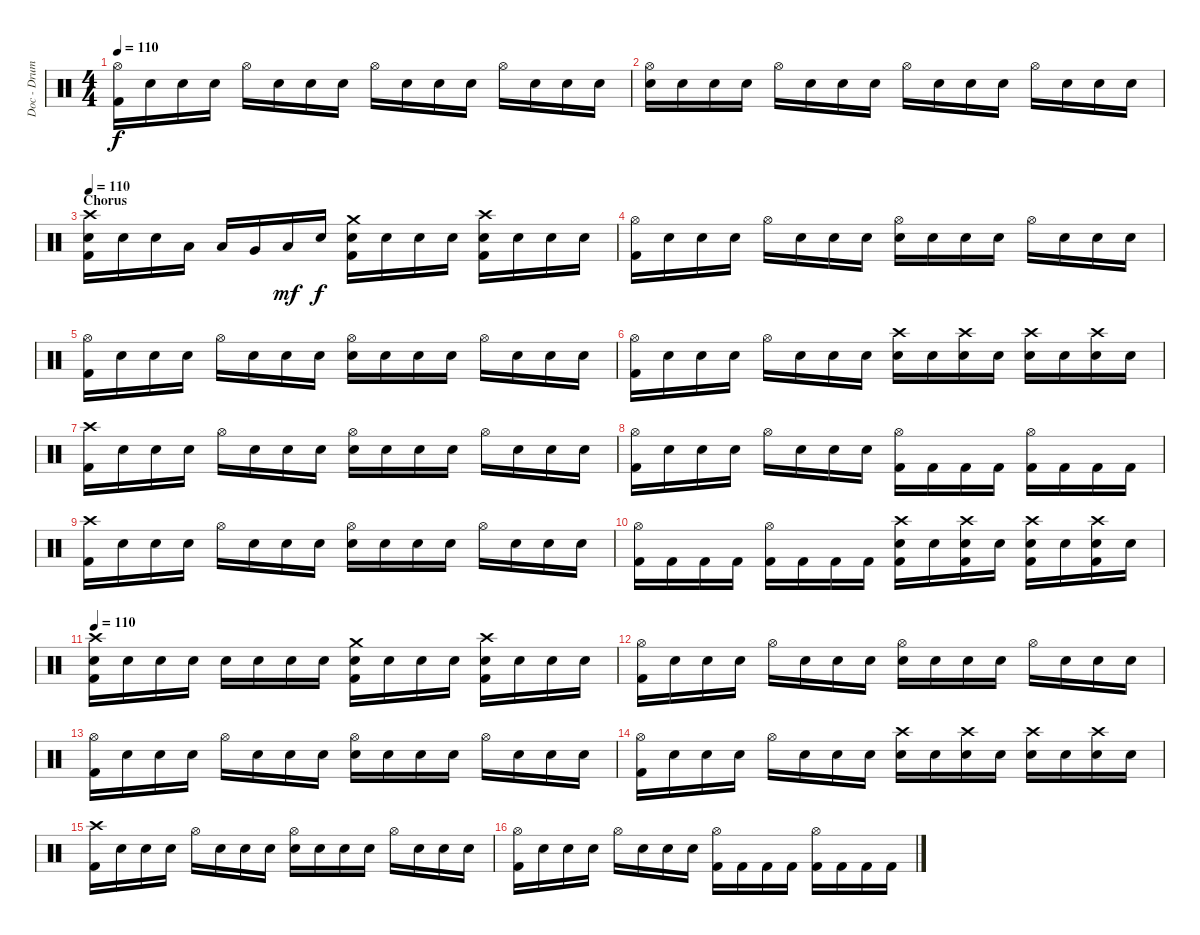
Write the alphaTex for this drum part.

\track ("Doc - Drums" "Doc - Drum") {instrument percussion}
\staff {score}
\articulation defaults
\ts (4 4)
\tempo 110
\clef neutral
\ks c
("Hi-Hat (open)" "Kick (hit) 2").16{dy f} "Snare (hit)".16 "Snare (hit)".16 "Snare (hit)".16 "Hi-Hat (open)".16 "Snare (hit)".16 "Snare (hit)".16 "Snare (hit)".16 "Hi-Hat (open)".16 "Snare (hit)".16 "Snare (hit)".16 "Snare (hit)".16 "Hi-Hat (open)".16 "Snare (hit)".16 "Snare (hit)".16 "Snare (hit)".16 |
("Hi-Hat (open)" "Electric Snare (hit)").16 "Snare (hit)".16 "Snare (hit)".16 "Snare (hit)".16 "Hi-Hat (open)".16 "Snare (hit)".16 "Snare (hit)".16 "Snare (hit)".16 "Hi-Hat (open)".16 "Snare (hit)".16 "Snare (hit)".16 "Snare (hit)".16 "Hi-Hat (open)".16 "Snare (hit)".16 "Snare (hit)".16 "Snare (hit)".16 |
\section ("" "Chorus")
\tempo 110
("Crash high (hit)" "Electric Snare (hit)" "Kick (hit) 2").16{volume 16 balance 8} "Snare (hit)".16 "Snare (hit)".16 "Low Tom (hit)".16 "Low Tom (hit)".16 "Very Low Tom (hit)".16 "Low Floor Tom (hit)".16{dy mf} "Snare (hit)".16{dy f} ("Crash medium (hit)" "Electric Snare (hit)" "Kick (hit) 2").16 "Snare (hit)".16 "Snare (hit)".16 "Snare (hit)".16 ("Crash high (hit)" "Electric Snare (hit)" "Kick (hit) 2").16 "Snare (hit)".16 "Snare (hit)".16 "Snare (hit)".16 |
("Hi-Hat (open)" "Kick (hit) 2").16 "Snare (hit)".16 "Snare (hit)".16 "Snare (hit)".16 "Hi-Hat (open)".16 "Snare (hit)".16 "Snare (hit)".16 "Snare (hit)".16 ("Hi-Hat (open)" "Electric Snare (hit)").16 "Snare (hit)".16 "Snare (hit)".16 "Snare (hit)".16 "Hi-Hat (open)".16 "Snare (hit)".16 "Snare (hit)".16 "Snare (hit)".16 |
("Hi-Hat (open)" "Kick (hit) 2").16 "Snare (hit)".16 "Snare (hit)".16 "Snare (hit)".16 "Hi-Hat (open)".16 "Snare (hit)".16 "Snare (hit)".16 "Snare (hit)".16 ("Hi-Hat (open)" "Electric Snare (hit)").16 "Snare (hit)".16 "Snare (hit)".16 "Snare (hit)".16 "Hi-Hat (open)".16 "Snare (hit)".16 "Snare (hit)".16 "Snare (hit)".16 |
("Hi-Hat (open)" "Kick (hit) 2").16 "Snare (hit)".16 "Snare (hit)".16 "Snare (hit)".16 "Hi-Hat (open)".16 "Snare (hit)".16 "Snare (hit)".16 "Snare (hit)".16 ("Crash high (hit)" "Electric Snare (hit)").16 "Snare (hit)".16 ("Crash high (hit)" "Electric Snare (hit)").16 "Snare (hit)".16 ("Crash high (hit)" "Electric Snare (hit)").16 "Snare (hit)".16 ("Crash high (hit)" "Electric Snare (hit)").16 "Snare (hit)".16 |
("Crash high (hit)" "Kick (hit) 2").16 "Snare (hit)".16 "Snare (hit)".16 "Snare (hit)".16 "Hi-Hat (open)".16 "Snare (hit)".16 "Snare (hit)".16 "Snare (hit)".16 ("Hi-Hat (open)" "Electric Snare (hit)").16 "Snare (hit)".16 "Snare (hit)".16 "Snare (hit)".16 "Hi-Hat (open)".16 "Snare (hit)".16 "Snare (hit)".16 "Snare (hit)".16 |
("Hi-Hat (open)" "Kick (hit) 2").16 "Snare (hit)".16 "Snare (hit)".16 "Snare (hit)".16 "Hi-Hat (open)".16 "Snare (hit)".16 "Snare (hit)".16 "Snare (hit)".16 ("Hi-Hat (open)" "Kick (hit) 2").16 "Kick (hit) 2".16 "Kick (hit) 2".16 "Kick (hit) 2".16 ("Hi-Hat (open)" "Kick (hit) 2").16 "Kick (hit) 2".16 "Kick (hit) 2".16 "Kick (hit) 2".16 |
("Crash high (hit)" "Kick (hit) 2").16 "Snare (hit)".16 "Snare (hit)".16 "Snare (hit)".16 "Hi-Hat (open)".16 "Snare (hit)".16 "Snare (hit)".16 "Snare (hit)".16 ("Hi-Hat (open)" "Electric Snare (hit)").16 "Snare (hit)".16 "Snare (hit)".16 "Snare (hit)".16 "Hi-Hat (open)".16 "Snare (hit)".16 "Snare (hit)".16 "Snare (hit)".16 |
("Hi-Hat (open)" "Kick (hit) 2").16 "Kick (hit) 2".16 "Kick (hit) 2".16 "Kick (hit) 2".16 ("Hi-Hat (open)" "Kick (hit) 2").16 "Kick (hit) 2".16 "Kick (hit) 2".16 "Kick (hit) 2".16 ("Crash high (hit)" "Electric Snare (hit)" "Kick (hit) 2").16 "Snare (hit)".16 ("Crash high (hit)" "Electric Snare (hit)" "Kick (hit) 2").16 "Snare (hit)".16 ("Crash high (hit)" "Electric Snare (hit)" "Kick (hit) 2").16 "Snare (hit)".16 ("Crash high (hit)" "Electric Snare (hit)" "Kick (hit) 2").16 "Snare (hit)".16 |
\tempo 110
("Crash high (hit)" "Electric Snare (hit)" "Kick (hit) 2").16{volume 16 balance 8} "Snare (hit)".16 "Snare (hit)".16 "Snare (hit)".16 "Snare (hit)".16 "Snare (hit)".16 "Snare (hit)".16 "Snare (hit)".16 ("Crash medium (hit)" "Electric Snare (hit)" "Kick (hit) 2").16 "Snare (hit)".16 "Snare (hit)".16 "Snare (hit)".16 ("Crash high (hit)" "Electric Snare (hit)" "Kick (hit) 2").16 "Snare (hit)".16 "Snare (hit)".16 "Snare (hit)".16 |
("Hi-Hat (open)" "Kick (hit) 2").16 "Snare (hit)".16 "Snare (hit)".16 "Snare (hit)".16 "Hi-Hat (open)".16 "Snare (hit)".16 "Snare (hit)".16 "Snare (hit)".16 ("Hi-Hat (open)" "Electric Snare (hit)").16 "Snare (hit)".16 "Snare (hit)".16 "Snare (hit)".16 "Hi-Hat (open)".16 "Snare (hit)".16 "Snare (hit)".16 "Snare (hit)".16 |
("Hi-Hat (open)" "Kick (hit) 2").16 "Snare (hit)".16 "Snare (hit)".16 "Snare (hit)".16 "Hi-Hat (open)".16 "Snare (hit)".16 "Snare (hit)".16 "Snare (hit)".16 ("Hi-Hat (open)" "Electric Snare (hit)").16 "Snare (hit)".16 "Snare (hit)".16 "Snare (hit)".16 "Hi-Hat (open)".16 "Snare (hit)".16 "Snare (hit)".16 "Snare (hit)".16 |
("Hi-Hat (open)" "Kick (hit) 2").16 "Snare (hit)".16 "Snare (hit)".16 "Snare (hit)".16 "Hi-Hat (open)".16 "Snare (hit)".16 "Snare (hit)".16 "Snare (hit)".16 ("Crash high (hit)" "Electric Snare (hit)").16 "Snare (hit)".16 ("Crash high (hit)" "Electric Snare (hit)").16 "Snare (hit)".16 ("Crash high (hit)" "Electric Snare (hit)").16 "Snare (hit)".16 ("Crash high (hit)" "Electric Snare (hit)").16 "Snare (hit)".16 |
("Crash high (hit)" "Kick (hit) 2").16 "Snare (hit)".16 "Snare (hit)".16 "Snare (hit)".16 "Hi-Hat (open)".16 "Snare (hit)".16 "Snare (hit)".16 "Snare (hit)".16 ("Hi-Hat (open)" "Electric Snare (hit)").16 "Snare (hit)".16 "Snare (hit)".16 "Snare (hit)".16 "Hi-Hat (open)".16 "Snare (hit)".16 "Snare (hit)".16 "Snare (hit)".16 |
("Hi-Hat (open)" "Kick (hit) 2").16 "Snare (hit)".16 "Snare (hit)".16 "Snare (hit)".16 "Hi-Hat (open)".16 "Snare (hit)".16 "Snare (hit)".16 "Snare (hit)".16 ("Hi-Hat (open)" "Kick (hit) 2").16 "Kick (hit) 2".16 "Kick (hit) 2".16 "Kick (hit) 2".16 ("Hi-Hat (open)" "Kick (hit) 2").16 "Kick (hit) 2".16 "Kick (hit) 2".16 "Kick (hit) 2".16
